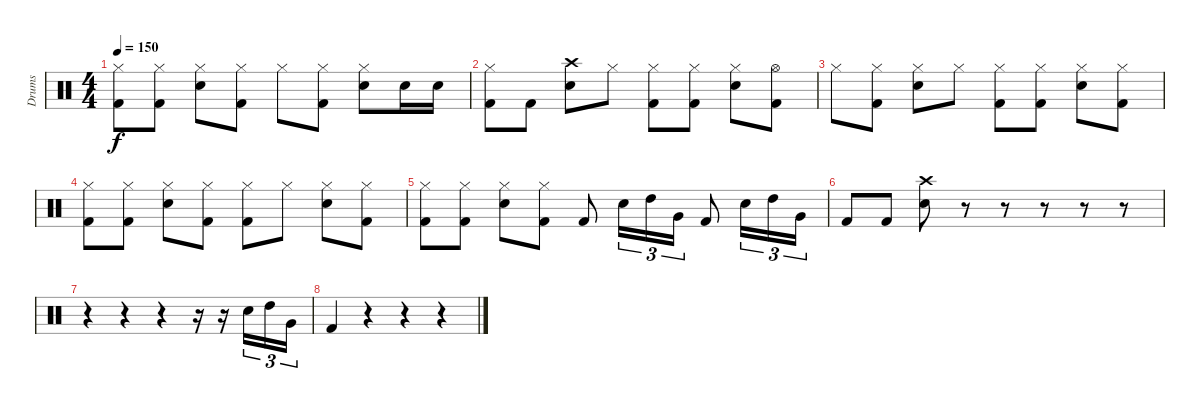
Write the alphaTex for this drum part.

\track ("Drums" "Drums") {instrument percussion}
\staff {score}
\articulation defaults
\ts (4 4)
\tempo 150
\clef neutral
\ks c
("Hi-Hat (closed)" "Kick (hit) 2").8{dy f} ("Hi-Hat (closed)" "Kick (hit) 2").8 ("Hi-Hat (closed)" "Electric Snare (hit)").8 ("Hi-Hat (closed)" "Kick (hit) 2").8 "Hi-Hat (closed)".8 ("Hi-Hat (closed)" "Kick (hit) 2").8 ("Hi-Hat (closed)" "Electric Snare (hit)").8 "Electric Snare (hit)".16 "Electric Snare (hit)".16 |
("Hi-Hat (closed)" "Kick (hit) 2").8 "Kick (hit) 2".8 ("Crash high (hit)" "Electric Snare (hit)").8 "Hi-Hat (closed)".8 ("Hi-Hat (closed)" "Kick (hit) 2").8 ("Hi-Hat (closed)" "Kick (hit) 2").8 ("Hi-Hat (closed)" "Electric Snare (hit)").8 ("Hi-Hat (open)" "Kick (hit) 2").8 |
"Hi-Hat (closed)".8 ("Hi-Hat (closed)" "Kick (hit) 2").8 ("Hi-Hat (closed)" "Electric Snare (hit)").8 "Hi-Hat (closed)".8 ("Hi-Hat (closed)" "Kick (hit) 2").8 ("Hi-Hat (closed)" "Kick (hit) 2").8 ("Hi-Hat (closed)" "Electric Snare (hit)").8 ("Hi-Hat (closed)" "Kick (hit) 2").8 |
("Hi-Hat (closed)" "Kick (hit) 2").8 ("Hi-Hat (closed)" "Kick (hit) 2").8 ("Hi-Hat (closed)" "Electric Snare (hit)").8 ("Hi-Hat (closed)" "Kick (hit) 2").8 ("Hi-Hat (closed)" "Kick (hit) 2").8 "Hi-Hat (closed)".8 ("Hi-Hat (closed)" "Electric Snare (hit)").8 ("Hi-Hat (closed)" "Kick (hit) 2").8 |
("Hi-Hat (closed)" "Kick (hit) 2").8 ("Hi-Hat (closed)" "Kick (hit) 2").8 ("Hi-Hat (closed)" "Electric Snare (hit)").8 ("Hi-Hat (closed)" "Kick (hit) 2").8 "Kick (hit) 2".8 "Electric Snare (hit)".16{tu (3 2)} "High Tom (hit)".16{tu (3 2)} "Very Low Tom (hit)".16{tu (3 2)} "Kick (hit) 2".8 "Electric Snare (hit)".16{tu (3 2)} "High Tom (hit)".16{tu (3 2)} "Very Low Tom (hit)".16{tu (3 2)} |
"Kick (hit) 2".8 "Kick (hit) 2".8 ("Crash high (hit)" "Electric Snare (hit)").8 r.8 r.8 r.8 r.8 r.8 |
r.4 r.4 r.4 r.16 r.16 "Electric Snare (hit)".16{tu (3 2)} "High Tom (hit)".16{tu (3 2)} "Very Low Tom (hit)".16{tu (3 2)} |
"Kick (hit) 2".4 r.4 r.4 r.4
